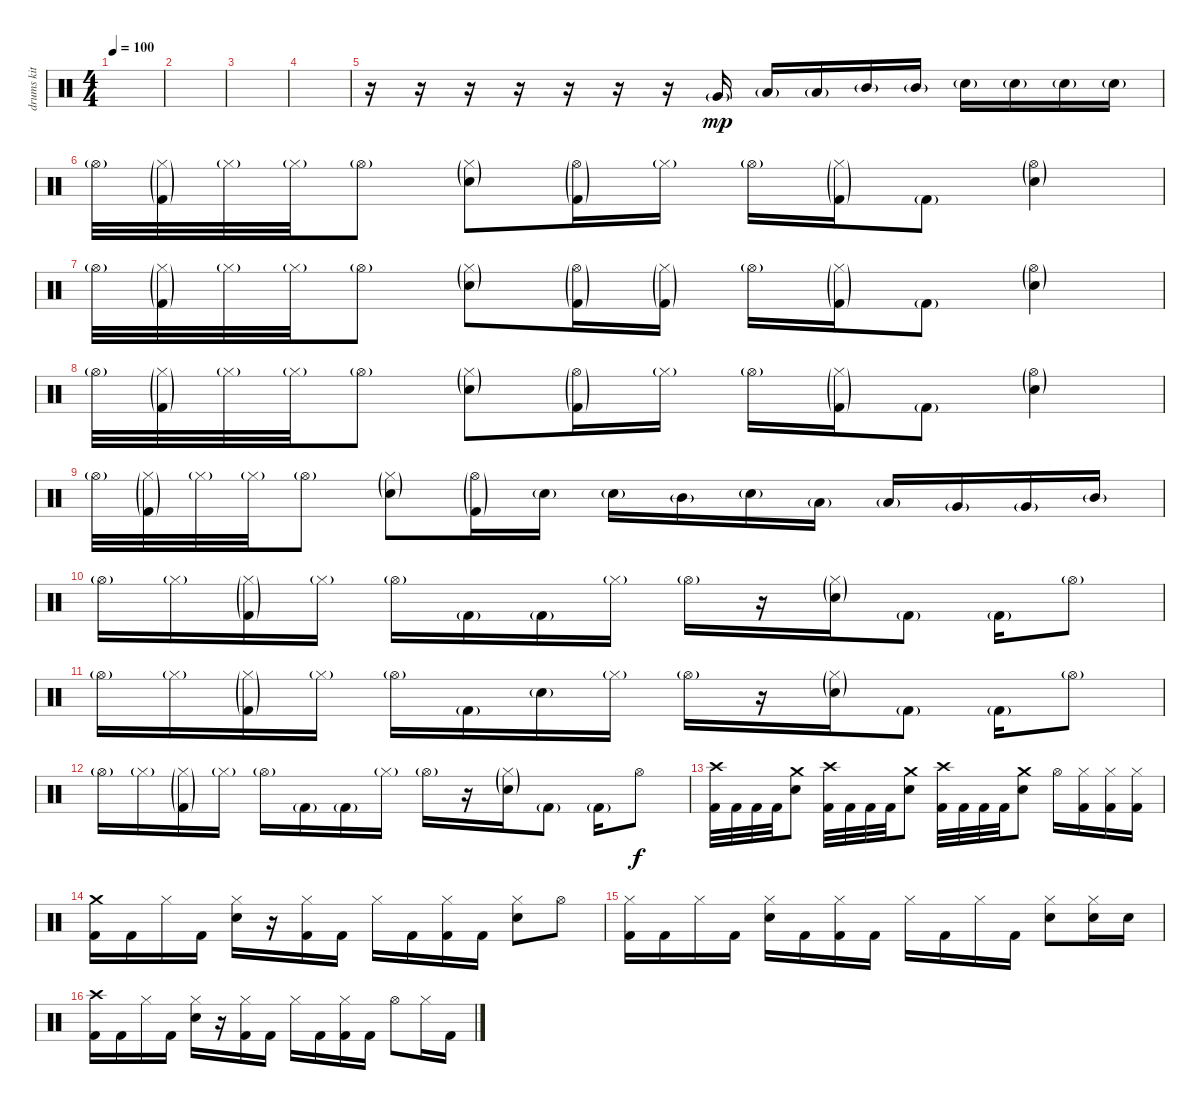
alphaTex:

\track ("drums kit" "drums kit") {instrument percussion}
\staff {score}
\articulation defaults
\ts (4 4)
\tempo 100
\clef neutral
\ks c
|
|
|
|
r.16 r.16 r.16 r.16 r.16 r.16 r.16 "Very Low Tom (hit)"{g}.16{dy mp} "Low Tom (hit)"{g}.16 "Low Tom (hit)"{g}.16 "Mid Tom (hit)"{g}.16 "Mid Tom (hit)"{g}.16 "Snare (hit) 2"{g}.16 "Snare (hit) 2"{g}.16 "Snare (hit) 2"{g}.16 "Snare (hit) 2"{g}.16 |
"Hi-Hat (open)"{g}.32 ("Hi-Hat (closed)"{g} "Kick (hit) 2"{g}).32 "Hi-Hat (closed)"{g}.32 "Hi-Hat (closed)"{g}.32 "Hi-Hat (open)"{g}.8 ("Hi-Hat (closed)"{g} "Snare (hit) 2"{g}).8 ("Hi-Hat (open)"{g} "Kick (hit) 2"{g}).16 "Hi-Hat (closed)"{g}.16 "Hi-Hat (open)"{g}.16 ("Hi-Hat (closed)"{g} "Kick (hit) 2"{g}).16 "Kick (hit) 2"{g}.8 ("Hi-Hat (open)"{g} "Snare (hit) 2"{g}).4 |
"Hi-Hat (open)"{g}.32 ("Hi-Hat (closed)"{g} "Kick (hit) 2"{g}).32 "Hi-Hat (closed)"{g}.32 "Hi-Hat (closed)"{g}.32 "Hi-Hat (open)"{g}.8 ("Hi-Hat (closed)"{g} "Snare (hit) 2"{g}).8 ("Hi-Hat (open)"{g} "Kick (hit) 2"{g}).16 ("Hi-Hat (closed)"{g} "Kick (hit) 2"{g}).16 "Hi-Hat (open)"{g}.16 ("Hi-Hat (closed)"{g} "Kick (hit) 2"{g}).16 "Kick (hit) 2"{g}.8 ("Hi-Hat (open)"{g} "Snare (hit) 2"{g}).4 |
"Hi-Hat (open)"{g}.32 ("Hi-Hat (closed)"{g} "Kick (hit) 2"{g}).32 "Hi-Hat (closed)"{g}.32 "Hi-Hat (closed)"{g}.32 "Hi-Hat (open)"{g}.8 ("Hi-Hat (closed)"{g} "Snare (hit) 2"{g}).8 ("Hi-Hat (open)"{g} "Kick (hit) 2"{g}).16 "Hi-Hat (closed)"{g}.16 "Hi-Hat (open)"{g}.16 ("Hi-Hat (closed)"{g} "Kick (hit) 2"{g}).16 "Kick (hit) 2"{g}.8 ("Hi-Hat (open)"{g} "Snare (hit) 2"{g}).4 |
"Hi-Hat (open)"{g}.32 ("Hi-Hat (closed)"{g} "Kick (hit) 2"{g}).32 "Hi-Hat (closed)"{g}.32 "Hi-Hat (closed)"{g}.32 "Hi-Hat (open)"{g}.8 ("Hi-Hat (closed)"{g} "Snare (hit) 2"{g}).8 ("Hi-Hat (open)"{g} "Kick (hit) 2"{g}).16 "Snare (hit) 2"{g}.16 "Snare (hit) 2"{g}.16 "Mid Tom (hit)"{g}.16 "Snare (hit) 2"{g}.16 "Low Tom (hit)"{g}.16 "Low Tom (hit)"{g}.16 "Very Low Tom (hit)"{g}.16 "Very Low Tom (hit)"{g}.16 "Mid Tom (hit)"{g}.16 |
"Hi-Hat (open)"{g}.16 "Hi-Hat (closed)"{g}.16 ("Hi-Hat (closed)"{g} "Kick (hit) 2"{g}).16 "Hi-Hat (closed)"{g}.16 "Hi-Hat (open)"{g}.16 "Kick (hit) 2"{g}.16 "Kick (hit) 2"{g}.16 "Hi-Hat (closed)"{g}.16 "Hi-Hat (open)"{g}.16 r.16 ("Hi-Hat (closed)"{g} "Snare (hit) 2"{g}).16 "Kick (hit) 2"{g}.8 "Kick (hit) 2"{g}.16 "Hi-Hat (open)"{g}.8 |
"Hi-Hat (open)"{g}.16 "Hi-Hat (closed)"{g}.16 ("Hi-Hat (closed)"{g} "Kick (hit) 2"{g}).16 "Hi-Hat (closed)"{g}.16 "Hi-Hat (open)"{g}.16 "Kick (hit) 2"{g}.16 "Snare (hit) 2"{g}.16 "Hi-Hat (closed)"{g}.16 "Hi-Hat (open)"{g}.16 r.16 ("Hi-Hat (closed)"{g} "Snare (hit) 2"{g}).16 "Kick (hit) 2"{g}.8 "Kick (hit) 2"{g}.16 "Hi-Hat (open)"{g}.8 |
"Hi-Hat (open)"{g}.16 "Hi-Hat (closed)"{g}.16 ("Hi-Hat (closed)"{g} "Kick (hit) 2"{g}).16 "Hi-Hat (closed)"{g}.16 "Hi-Hat (open)"{g}.16 "Kick (hit) 2"{g}.16 "Kick (hit) 2"{g}.16 "Hi-Hat (closed)"{g}.16 "Hi-Hat (open)"{g}.16 r.16 ("Hi-Hat (closed)"{g} "Snare (hit) 2"{g}).16 "Kick (hit) 2"{g}.8 "Kick (hit) 2"{g}.16 "Hi-Hat (open)".8{dy f} |
("Crash high (hit)" "Kick (hit) 2").32 "Kick (hit) 2".32 "Kick (hit) 2".32 "Kick (hit) 2".32 ("Crash medium (hit)" "Snare (hit) 2").8 ("Crash high (hit)" "Kick (hit) 2").32 "Kick (hit) 2".32 "Kick (hit) 2".32 "Kick (hit) 2".32 ("Crash medium (hit)" "Snare (hit) 2").8 ("Crash high (hit)" "Kick (hit) 2").32 "Kick (hit) 2".32 "Kick (hit) 2".32 "Kick (hit) 2".32 ("Crash medium (hit)" "Snare (hit) 2").8 "Hi-Hat (open)".16 ("Hi-Hat (closed)" "Kick (hit) 2").16 ("Hi-Hat (closed)" "Kick (hit) 2").16 ("Hi-Hat (closed)" "Kick (hit) 2").16 |
("Crash medium (hit)" "Kick (hit) 2").16 "Kick (hit) 2".16 "Hi-Hat (closed)".16 "Kick (hit) 2".16 ("Hi-Hat (closed)" "Snare (hit) 2").16 r.16 ("Hi-Hat (closed)" "Kick (hit) 2").16 "Kick (hit) 2".16 "Hi-Hat (closed)".16 "Kick (hit) 2".16 ("Hi-Hat (closed)" "Kick (hit) 2").16 "Kick (hit) 2".16 ("Hi-Hat (closed)" "Snare (hit) 2").8 "Hi-Hat (open)".8 |
("Hi-Hat (closed)" "Kick (hit) 2").16 "Kick (hit) 2".16 "Hi-Hat (closed)".16 "Kick (hit) 2".16 ("Hi-Hat (closed)" "Snare (hit) 2").16 "Kick (hit) 2".16 ("Hi-Hat (closed)" "Kick (hit) 2").16 "Kick (hit) 2".16 "Hi-Hat (closed)".16 "Kick (hit) 2".16 "Hi-Hat (closed)".16 "Kick (hit) 2".16 ("Hi-Hat (closed)" "Snare (hit) 2").8 ("Hi-Hat (closed)" "Snare (hit) 2").16 "Snare (hit) 2".16 |
("Crash high (hit)" "Kick (hit) 2").16 "Kick (hit) 2".16 "Hi-Hat (closed)".16 "Kick (hit) 2".16 ("Hi-Hat (closed)" "Snare (hit) 2").16 r.16 ("Hi-Hat (closed)" "Kick (hit) 2").16 "Kick (hit) 2".16 "Hi-Hat (closed)".16 "Kick (hit) 2".16 ("Hi-Hat (closed)" "Kick (hit) 2").16 "Kick (hit) 2".16 "Hi-Hat (open)".8 "Hi-Hat (closed)".16 "Kick (hit) 2".16
